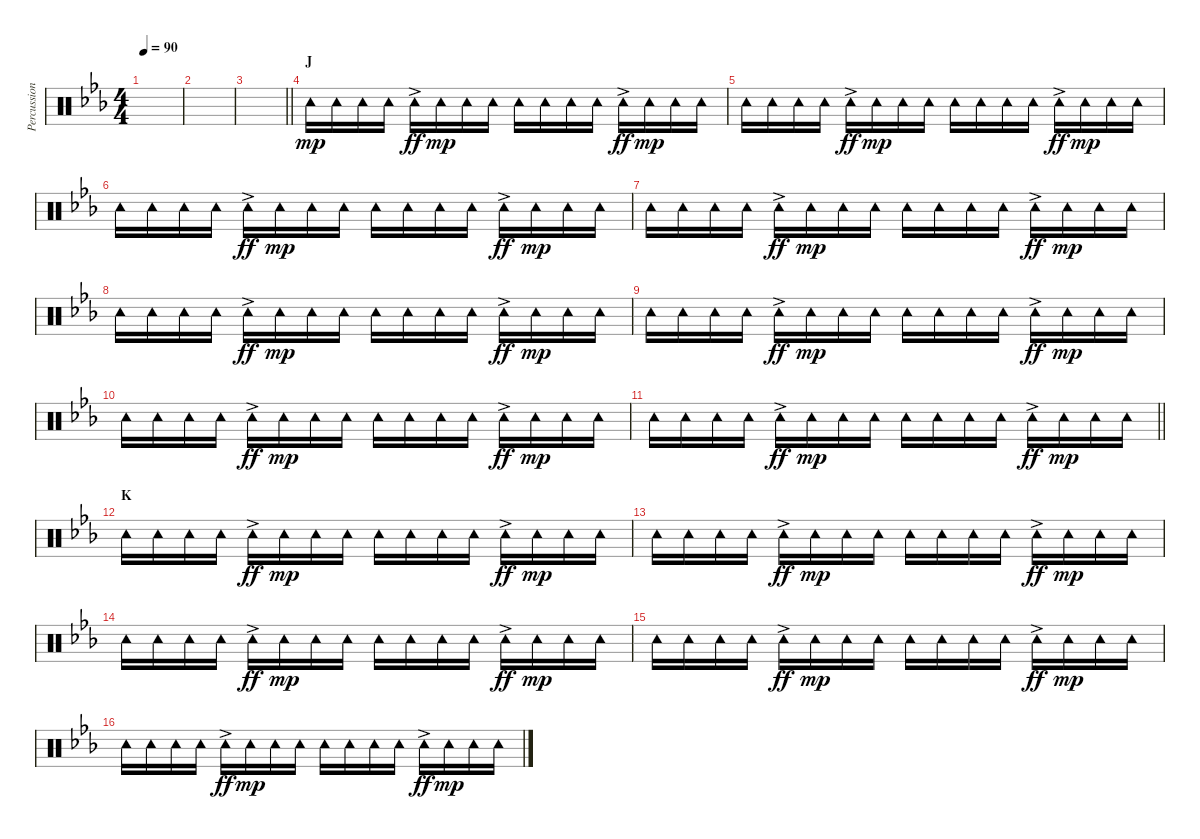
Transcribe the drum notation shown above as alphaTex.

\track ("Percussion" "Percussion") {instrument percussion}
\staff {score}
\articulation defaults
\ts (4 4)
\tempo 90
\clef neutral
\ks eb
|
|
\barLineRight lightlight
|
\section ("" "J")
"Tambourine (hit)".16{dy mp} "Tambourine (hit)".16 "Tambourine (hit)".16 "Tambourine (hit)".16 "Tambourine (hit)"{ac}.16{dy ff} "Tambourine (hit)".16{dy mp} "Tambourine (hit)".16 "Tambourine (hit)".16 "Tambourine (hit)".16 "Tambourine (hit)".16 "Tambourine (hit)".16 "Tambourine (hit)".16 "Tambourine (hit)"{ac}.16{dy ff} "Tambourine (hit)".16{dy mp} "Tambourine (hit)".16 "Tambourine (hit)".16 |
"Tambourine (hit)".16 "Tambourine (hit)".16 "Tambourine (hit)".16 "Tambourine (hit)".16 "Tambourine (hit)"{ac}.16{dy ff} "Tambourine (hit)".16{dy mp} "Tambourine (hit)".16 "Tambourine (hit)".16 "Tambourine (hit)".16 "Tambourine (hit)".16 "Tambourine (hit)".16 "Tambourine (hit)".16 "Tambourine (hit)"{ac}.16{dy ff} "Tambourine (hit)".16{dy mp} "Tambourine (hit)".16 "Tambourine (hit)".16 |
"Tambourine (hit)".16 "Tambourine (hit)".16 "Tambourine (hit)".16 "Tambourine (hit)".16 "Tambourine (hit)"{ac}.16{dy ff} "Tambourine (hit)".16{dy mp} "Tambourine (hit)".16 "Tambourine (hit)".16 "Tambourine (hit)".16 "Tambourine (hit)".16 "Tambourine (hit)".16 "Tambourine (hit)".16 "Tambourine (hit)"{ac}.16{dy ff} "Tambourine (hit)".16{dy mp} "Tambourine (hit)".16 "Tambourine (hit)".16 |
"Tambourine (hit)".16 "Tambourine (hit)".16 "Tambourine (hit)".16 "Tambourine (hit)".16 "Tambourine (hit)"{ac}.16{dy ff} "Tambourine (hit)".16{dy mp} "Tambourine (hit)".16 "Tambourine (hit)".16 "Tambourine (hit)".16 "Tambourine (hit)".16 "Tambourine (hit)".16 "Tambourine (hit)".16 "Tambourine (hit)"{ac}.16{dy ff} "Tambourine (hit)".16{dy mp} "Tambourine (hit)".16 "Tambourine (hit)".16 |
"Tambourine (hit)".16 "Tambourine (hit)".16 "Tambourine (hit)".16 "Tambourine (hit)".16 "Tambourine (hit)"{ac}.16{dy ff} "Tambourine (hit)".16{dy mp} "Tambourine (hit)".16 "Tambourine (hit)".16 "Tambourine (hit)".16 "Tambourine (hit)".16 "Tambourine (hit)".16 "Tambourine (hit)".16 "Tambourine (hit)"{ac}.16{dy ff} "Tambourine (hit)".16{dy mp} "Tambourine (hit)".16 "Tambourine (hit)".16 |
"Tambourine (hit)".16 "Tambourine (hit)".16 "Tambourine (hit)".16 "Tambourine (hit)".16 "Tambourine (hit)"{ac}.16{dy ff} "Tambourine (hit)".16{dy mp} "Tambourine (hit)".16 "Tambourine (hit)".16 "Tambourine (hit)".16 "Tambourine (hit)".16 "Tambourine (hit)".16 "Tambourine (hit)".16 "Tambourine (hit)"{ac}.16{dy ff} "Tambourine (hit)".16{dy mp} "Tambourine (hit)".16 "Tambourine (hit)".16 |
"Tambourine (hit)".16 "Tambourine (hit)".16 "Tambourine (hit)".16 "Tambourine (hit)".16 "Tambourine (hit)"{ac}.16{dy ff} "Tambourine (hit)".16{dy mp} "Tambourine (hit)".16 "Tambourine (hit)".16 "Tambourine (hit)".16 "Tambourine (hit)".16 "Tambourine (hit)".16 "Tambourine (hit)".16 "Tambourine (hit)"{ac}.16{dy ff} "Tambourine (hit)".16{dy mp} "Tambourine (hit)".16 "Tambourine (hit)".16 |
\barLineRight lightlight "Tambourine (hit)".16 "Tambourine (hit)".16 "Tambourine (hit)".16 "Tambourine (hit)".16 "Tambourine (hit)"{ac}.16{dy ff} "Tambourine (hit)".16{dy mp} "Tambourine (hit)".16 "Tambourine (hit)".16 "Tambourine (hit)".16 "Tambourine (hit)".16 "Tambourine (hit)".16 "Tambourine (hit)".16 "Tambourine (hit)"{ac}.16{dy ff} "Tambourine (hit)".16{dy mp} "Tambourine (hit)".16 "Tambourine (hit)".16
|
\section ("" "K")
"Tambourine (hit)".16 "Tambourine (hit)".16 "Tambourine (hit)".16 "Tambourine (hit)".16 "Tambourine (hit)"{ac}.16{dy ff} "Tambourine (hit)".16{dy mp} "Tambourine (hit)".16 "Tambourine (hit)".16 "Tambourine (hit)".16 "Tambourine (hit)".16 "Tambourine (hit)".16 "Tambourine (hit)".16 "Tambourine (hit)"{ac}.16{dy ff} "Tambourine (hit)".16{dy mp} "Tambourine (hit)".16 "Tambourine (hit)".16 |
"Tambourine (hit)".16 "Tambourine (hit)".16 "Tambourine (hit)".16 "Tambourine (hit)".16 "Tambourine (hit)"{ac}.16{dy ff} "Tambourine (hit)".16{dy mp} "Tambourine (hit)".16 "Tambourine (hit)".16 "Tambourine (hit)".16 "Tambourine (hit)".16 "Tambourine (hit)".16 "Tambourine (hit)".16 "Tambourine (hit)"{ac}.16{dy ff} "Tambourine (hit)".16{dy mp} "Tambourine (hit)".16 "Tambourine (hit)".16 |
"Tambourine (hit)".16 "Tambourine (hit)".16 "Tambourine (hit)".16 "Tambourine (hit)".16 "Tambourine (hit)"{ac}.16{dy ff} "Tambourine (hit)".16{dy mp} "Tambourine (hit)".16 "Tambourine (hit)".16 "Tambourine (hit)".16 "Tambourine (hit)".16 "Tambourine (hit)".16 "Tambourine (hit)".16 "Tambourine (hit)"{ac}.16{dy ff} "Tambourine (hit)".16{dy mp} "Tambourine (hit)".16 "Tambourine (hit)".16 |
"Tambourine (hit)".16 "Tambourine (hit)".16 "Tambourine (hit)".16 "Tambourine (hit)".16 "Tambourine (hit)"{ac}.16{dy ff} "Tambourine (hit)".16{dy mp} "Tambourine (hit)".16 "Tambourine (hit)".16 "Tambourine (hit)".16 "Tambourine (hit)".16 "Tambourine (hit)".16 "Tambourine (hit)".16 "Tambourine (hit)"{ac}.16{dy ff} "Tambourine (hit)".16{dy mp} "Tambourine (hit)".16 "Tambourine (hit)".16 |
"Tambourine (hit)".16 "Tambourine (hit)".16 "Tambourine (hit)".16 "Tambourine (hit)".16 "Tambourine (hit)"{ac}.16{dy ff} "Tambourine (hit)".16{dy mp} "Tambourine (hit)".16 "Tambourine (hit)".16 "Tambourine (hit)".16 "Tambourine (hit)".16 "Tambourine (hit)".16 "Tambourine (hit)".16 "Tambourine (hit)"{ac}.16{dy ff} "Tambourine (hit)".16{dy mp} "Tambourine (hit)".16 "Tambourine (hit)".16
